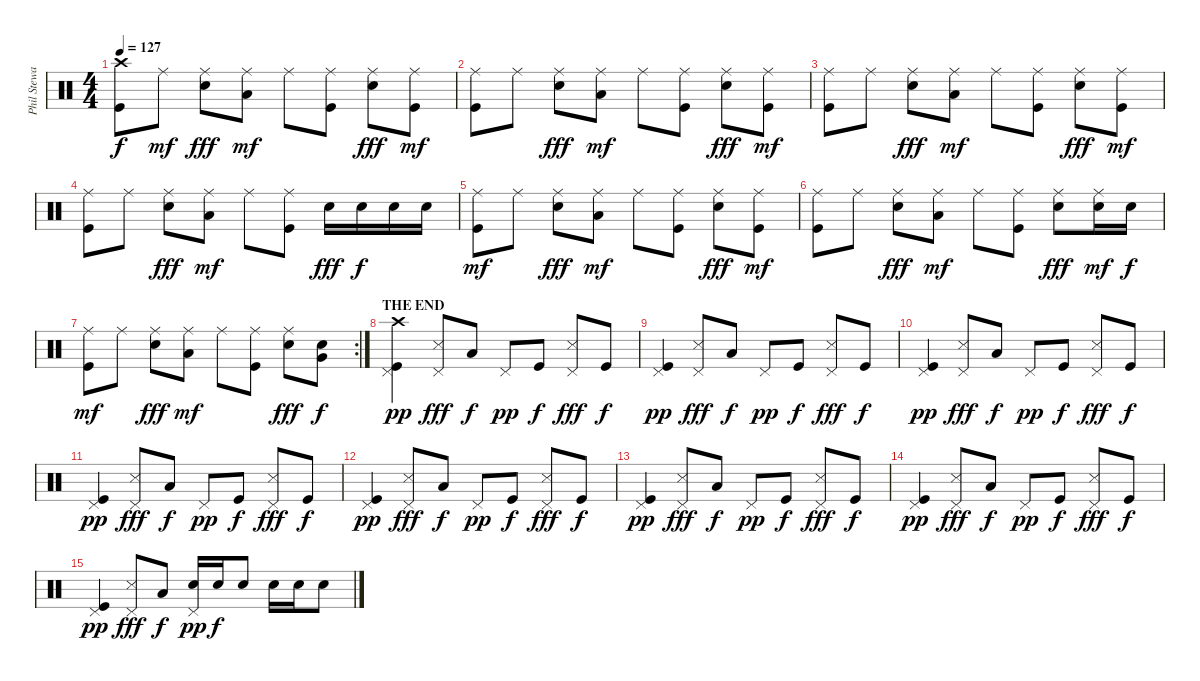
\track ("Phil Steway" "Phil Stewa") {instrument percussion}
\staff {score}
\articulation defaults
\ts (4 4)
\tempo 127
\clef neutral
\ks c
("Crash high (hit)" "Kick (hit)").8{dy f} "Ride (middle)".8{dy mf} ("Ride (middle)" "Electric Snare (hit)").8{dy fff} ("Ride (middle)" "Low Tom (hit)").8{dy mf} "Ride (middle)".8 ("Ride (middle)" "Kick (hit)").8 ("Ride (middle)" "Electric Snare (hit)").8{dy fff} ("Ride (middle)" "Kick (hit)").8{dy mf} |
("Ride (middle)" "Kick (hit)").8 "Ride (middle)".8 ("Ride (middle)" "Electric Snare (hit)").8{dy fff} ("Ride (middle)" "Low Tom (hit)").8{dy mf} "Ride (middle)".8 ("Ride (middle)" "Kick (hit)").8 ("Ride (middle)" "Electric Snare (hit)").8{dy fff} ("Ride (middle)" "Kick (hit)").8{dy mf} |
("Ride (middle)" "Kick (hit)").8 "Ride (middle)".8 ("Ride (middle)" "Electric Snare (hit)").8{dy fff} ("Ride (middle)" "Low Tom (hit)").8{dy mf} "Ride (middle)".8 ("Ride (middle)" "Kick (hit)").8 ("Ride (middle)" "Electric Snare (hit)").8{dy fff} ("Ride (middle)" "Kick (hit)").8{dy mf} |
("Ride (middle)" "Kick (hit)").8 "Ride (middle)".8 ("Ride (middle)" "Electric Snare (hit)").8{dy fff} ("Ride (middle)" "Low Tom (hit)").8{dy mf} "Ride (middle)".8 ("Ride (middle)" "Kick (hit)").8 "Electric Snare (hit)".16{dy fff} "Electric Snare (hit)".16{dy f} "Electric Snare (hit)".16 "Electric Snare (hit)".16 |
("Ride (middle)" "Kick (hit)").8{dy mf} "Ride (middle)".8 ("Ride (middle)" "Electric Snare (hit)").8{dy fff} ("Ride (middle)" "Low Tom (hit)").8{dy mf} "Ride (middle)".8 ("Ride (middle)" "Kick (hit)").8 ("Ride (middle)" "Electric Snare (hit)").8{dy fff} ("Ride (middle)" "Kick (hit)").8{dy mf} |
("Ride (middle)" "Kick (hit)").8 "Ride (middle)".8 ("Ride (middle)" "Electric Snare (hit)").8{dy fff} ("Ride (middle)" "Low Tom (hit)").8{dy mf} "Ride (middle)".8 ("Ride (middle)" "Kick (hit)").8 ("Ride (middle)" "Electric Snare (hit)").8{dy fff} ("Ride (middle)" "Electric Snare (hit)").16{dy mf} "Electric Snare (hit)".16{dy f} |
\rc 2
("Ride (middle)" "Kick (hit)").8{dy mf} "Ride (middle)".8 ("Ride (middle)" "Electric Snare (hit)").8{dy fff} ("Ride (middle)" "Low Tom (hit)").8{dy mf} "Ride (middle)".8 ("Ride (middle)" "Kick (hit)").8 ("Ride (middle)" "Electric Snare (hit)").8{dy fff} ("Electric Snare (hit)" "Very Low Tom (hit)").8{dy f} |
\section ("" "THE END")
("Crash high (hit)" "Pedal Hi-Hat (hit)" "Kick (hit)").4{dy pp} ("Pedal Hi-Hat (hit)" "Snare (side stick) 3").8{dy fff} "Low Tom (hit)".8{dy f} "Pedal Hi-Hat (hit)".8{dy pp} "Kick (hit)".8{dy f} ("Pedal Hi-Hat (hit)" "Snare (side stick) 3").8{dy fff} "Kick (hit)".8{dy f} |
("Pedal Hi-Hat (hit)" "Kick (hit)").4{dy pp} ("Pedal Hi-Hat (hit)" "Snare (side stick) 3").8{dy fff} "Low Tom (hit)".8{dy f} "Pedal Hi-Hat (hit)".8{dy pp} "Kick (hit)".8{dy f} ("Pedal Hi-Hat (hit)" "Snare (side stick) 3").8{dy fff} "Kick (hit)".8{dy f} |
("Pedal Hi-Hat (hit)" "Kick (hit)").4{dy pp} ("Pedal Hi-Hat (hit)" "Snare (side stick) 3").8{dy fff} "Low Tom (hit)".8{dy f} "Pedal Hi-Hat (hit)".8{dy pp} "Kick (hit)".8{dy f} ("Pedal Hi-Hat (hit)" "Snare (side stick) 3").8{dy fff} "Kick (hit)".8{dy f} |
("Pedal Hi-Hat (hit)" "Kick (hit)").4{dy pp} ("Pedal Hi-Hat (hit)" "Snare (side stick) 3").8{dy fff} "Low Tom (hit)".8{dy f} "Pedal Hi-Hat (hit)".8{dy pp} "Kick (hit)".8{dy f} ("Pedal Hi-Hat (hit)" "Snare (side stick) 3").8{dy fff} "Kick (hit)".8{dy f} |
("Pedal Hi-Hat (hit)" "Kick (hit)").4{dy pp} ("Pedal Hi-Hat (hit)" "Snare (side stick) 3").8{dy fff} "Low Tom (hit)".8{dy f} "Pedal Hi-Hat (hit)".8{dy pp} "Kick (hit)".8{dy f} ("Pedal Hi-Hat (hit)" "Snare (side stick) 3").8{dy fff} "Kick (hit)".8{dy f} |
("Pedal Hi-Hat (hit)" "Kick (hit)").4{dy pp} ("Pedal Hi-Hat (hit)" "Snare (side stick) 3").8{dy fff} "Low Tom (hit)".8{dy f} "Pedal Hi-Hat (hit)".8{dy pp} "Kick (hit)".8{dy f} ("Pedal Hi-Hat (hit)" "Snare (side stick) 3").8{dy fff} "Kick (hit)".8{dy f} |
("Pedal Hi-Hat (hit)" "Kick (hit)").4{dy pp} ("Pedal Hi-Hat (hit)" "Snare (side stick) 3").8{dy fff} "Low Tom (hit)".8{dy f} "Pedal Hi-Hat (hit)".8{dy pp} "Kick (hit)".8{dy f} ("Pedal Hi-Hat (hit)" "Snare (side stick) 3").8{dy fff} "Kick (hit)".8{dy f} |
("Pedal Hi-Hat (hit)" "Kick (hit)").4{dy pp} ("Pedal Hi-Hat (hit)" "Snare (side stick) 3").8{dy fff} "Low Tom (hit)".8{dy f} ("Pedal Hi-Hat (hit)" "Electric Snare (hit)").16{dy pp} "Electric Snare (hit)".16{dy f} "Electric Snare (hit)".8 "Electric Snare (hit)".16 "Electric Snare (hit)".16 "Electric Snare (hit)".8
